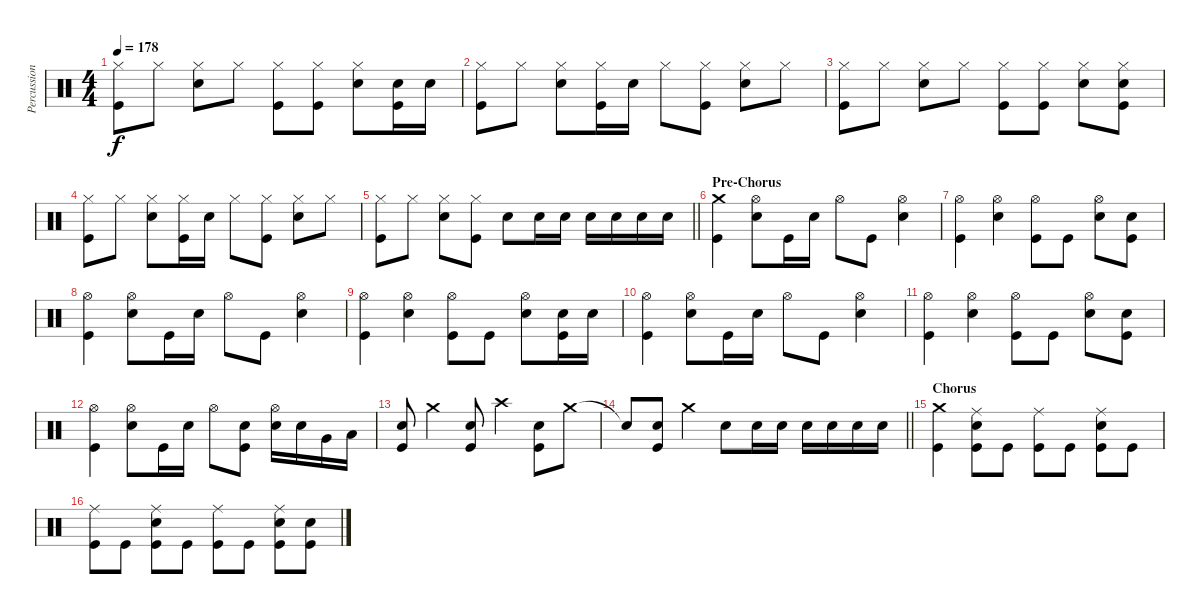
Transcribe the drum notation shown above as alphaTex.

\track ("Percussion" "Percussion") {instrument percussion}
\staff {score}
\articulation defaults
\ts (4 4)
\tempo 178
\clef neutral
\ks c
("Hi-Hat (closed)" "Kick (hit)").8{dy f} "Hi-Hat (closed)".8 ("Hi-Hat (closed)" "Electric Snare (hit)").8 "Hi-Hat (closed)".8 ("Hi-Hat (closed)" "Kick (hit)").8 ("Hi-Hat (closed)" "Kick (hit)").8 ("Hi-Hat (closed)" "Electric Snare (hit)").8 ("Electric Snare (hit)" "Kick (hit)").16 "Electric Snare (hit)".16 |
("Hi-Hat (closed)" "Kick (hit)").8 "Hi-Hat (closed)".8 ("Hi-Hat (closed)" "Electric Snare (hit)").8 ("Hi-Hat (closed)" "Kick (hit)").16 "Electric Snare (hit)".16 "Hi-Hat (closed)".8 ("Hi-Hat (closed)" "Kick (hit)").8 ("Hi-Hat (closed)" "Electric Snare (hit)").8 "Hi-Hat (closed)".8 |
("Hi-Hat (closed)" "Kick (hit)").8 "Hi-Hat (closed)".8 ("Hi-Hat (closed)" "Electric Snare (hit)").8 "Hi-Hat (closed)".8 ("Hi-Hat (closed)" "Kick (hit)").8 ("Hi-Hat (closed)" "Kick (hit)").8 ("Hi-Hat (closed)" "Electric Snare (hit)").8 ("Hi-Hat (closed)" "Electric Snare (hit)" "Kick (hit)").8 |
("Hi-Hat (closed)" "Kick (hit)").8 "Hi-Hat (closed)".8 ("Hi-Hat (closed)" "Electric Snare (hit)").8 ("Hi-Hat (closed)" "Kick (hit)").16 "Electric Snare (hit)".16 "Hi-Hat (closed)".8 ("Hi-Hat (closed)" "Kick (hit)").8 ("Hi-Hat (closed)" "Electric Snare (hit)").8 "Hi-Hat (closed)".8 |
\barLineRight lightlight
("Hi-Hat (closed)" "Kick (hit)").8 "Hi-Hat (closed)".8 ("Hi-Hat (closed)" "Electric Snare (hit)").8 ("Hi-Hat (closed)" "Kick (hit)").8 "Electric Snare (hit)".8 "Electric Snare (hit)".16 "Electric Snare (hit)".16 "Electric Snare (hit)".16 "Electric Snare (hit)".16 "Electric Snare (hit)".16 "Electric Snare (hit)".16 |
\section ("" "Pre-Chorus")
("Crash medium (hit)" "Kick (hit)").4 ("Hi-Hat (open)" "Electric Snare (hit)").8 "Kick (hit)".16 "Electric Snare (hit)".16 "Hi-Hat (open)".8 "Kick (hit)".8 ("Hi-Hat (open)" "Electric Snare (hit)").4 |
("Hi-Hat (open)" "Kick (hit)").4 ("Hi-Hat (open)" "Electric Snare (hit)").4 ("Hi-Hat (open)" "Kick (hit)").8 "Kick (hit)".8 ("Hi-Hat (open)" "Electric Snare (hit)").8 ("Electric Snare (hit)" "Kick (hit)").8 |
("Hi-Hat (open)" "Kick (hit)").4 ("Hi-Hat (open)" "Electric Snare (hit)").8 "Kick (hit)".16 "Electric Snare (hit)".16 "Hi-Hat (open)".8 "Kick (hit)".8 ("Hi-Hat (open)" "Electric Snare (hit)").4 |
("Hi-Hat (open)" "Kick (hit)").4 ("Hi-Hat (open)" "Electric Snare (hit)").4 ("Hi-Hat (open)" "Kick (hit)").8 "Kick (hit)".8 ("Hi-Hat (open)" "Electric Snare (hit)").8 ("Electric Snare (hit)" "Kick (hit)").16 "Electric Snare (hit)".16 |
("Hi-Hat (open)" "Kick (hit)").4 ("Hi-Hat (open)" "Electric Snare (hit)").8 "Kick (hit)".16 "Electric Snare (hit)".16 "Hi-Hat (open)".8 "Kick (hit)".8 ("Hi-Hat (open)" "Electric Snare (hit)").4 |
("Hi-Hat (open)" "Kick (hit)").4 ("Hi-Hat (open)" "Electric Snare (hit)").4 ("Hi-Hat (open)" "Kick (hit)").8 "Kick (hit)".8 ("Hi-Hat (open)" "Electric Snare (hit)").8 ("Electric Snare (hit)" "Kick (hit)").8 |
("Hi-Hat (open)" "Kick (hit)").4 ("Hi-Hat (open)" "Electric Snare (hit)").8 "Kick (hit)".16 "Electric Snare (hit)".16 "Hi-Hat (open)".8 ("Electric Snare (hit)" "Kick (hit)").8 ("Hi-Hat (open)" "Electric Snare (hit)").16 "Electric Snare (hit)".16 "Very Low Tom (hit)".16 "Low Floor Tom (hit)".16 |
("Electric Snare (hit)" "Kick (hit)").8 "Crash medium (hit)".4 ("Electric Snare (hit)" "Kick (hit)").8 "Crash high (hit)".4 ("Electric Snare (hit)" "Kick (hit)").8 "Crash medium (hit)".8 |
\barLineRight lightlight "Snare (hit)"{t}.8
("Electric Snare (hit)" "Kick (hit)").8 "Crash medium (hit)".4 "Electric Snare (hit)".8 "Electric Snare (hit)".16 "Electric Snare (hit)".16 "Electric Snare (hit)".16 "Electric Snare (hit)".16 "Electric Snare (hit)".16 "Electric Snare (hit)".16 |
\section ("" "Chorus")
("Crash medium (hit)" "Kick (hit)").4 ("Ride (middle)" "Electric Snare (hit)" "Kick (hit)").8 "Kick (hit)".8 ("Ride (middle)" "Kick (hit)").8 "Kick (hit)".8 ("Ride (middle)" "Electric Snare (hit)" "Kick (hit)").8 "Kick (hit)".8 |
("Ride (middle)" "Kick (hit)").8 "Kick (hit)".8 ("Ride (middle)" "Electric Snare (hit)" "Kick (hit)").8 "Kick (hit)".8 ("Ride (middle)" "Kick (hit)").8 "Kick (hit)".8 ("Ride (middle)" "Electric Snare (hit)" "Kick (hit)").8 ("Electric Snare (hit)" "Kick (hit)").8
